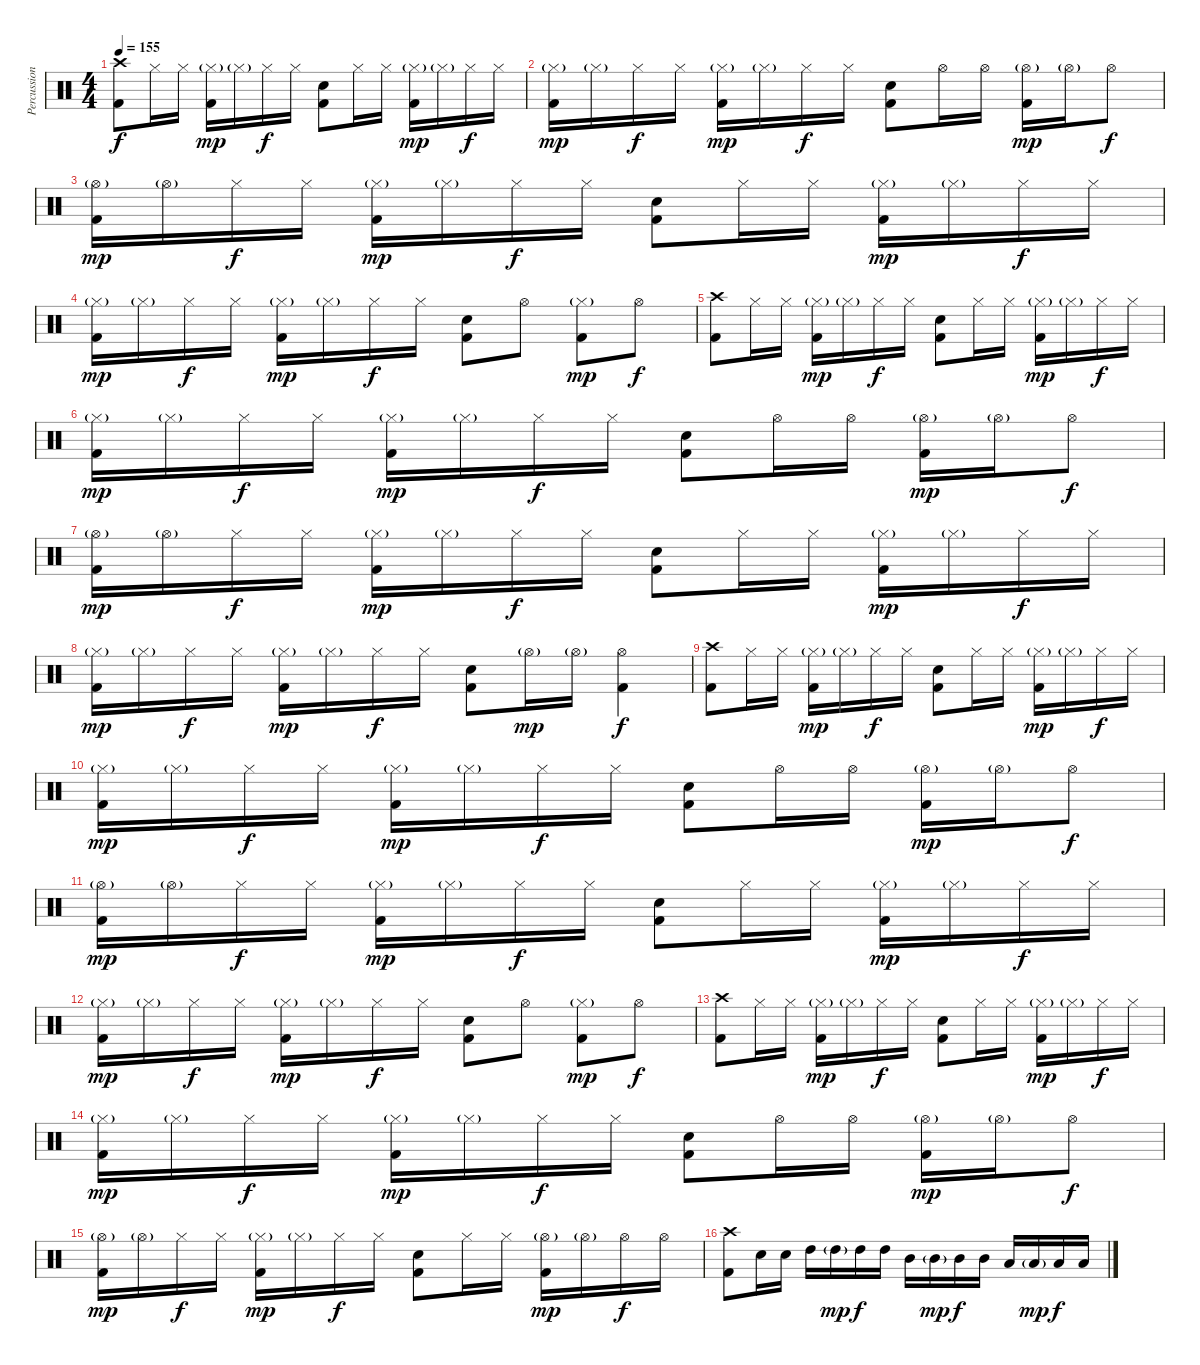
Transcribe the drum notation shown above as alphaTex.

\track ("Percussion" "Percussion") {instrument percussion}
\staff {score}
\articulation defaults
\ts (4 4)
\tempo 155
\clef neutral
\ks c
("Crash high (hit)" "Kick (hit) 2").8{dy f} "Hi-Hat (closed)".16 "Hi-Hat (closed)".16 ("Hi-Hat (closed)"{g} "Kick (hit) 2").16{dy mp} "Hi-Hat (closed)"{g}.16 "Hi-Hat (closed)".16{dy f} "Hi-Hat (closed)".16 ("Electric Snare (hit)" "Kick (hit) 2").8 "Hi-Hat (closed)".16 "Hi-Hat (closed)".16 ("Hi-Hat (closed)"{g} "Kick (hit) 2").16{dy mp} "Hi-Hat (closed)"{g}.16 "Hi-Hat (closed)".16{dy f} "Hi-Hat (closed)".16 |
("Hi-Hat (closed)"{g} "Kick (hit) 2").16{dy mp} "Hi-Hat (closed)"{g}.16 "Hi-Hat (closed)".16{dy f} "Hi-Hat (closed)".16 ("Hi-Hat (closed)"{g} "Kick (hit) 2").16{dy mp} "Hi-Hat (closed)"{g}.16 "Hi-Hat (closed)".16{dy f} "Hi-Hat (closed)".16 ("Electric Snare (hit)" "Kick (hit) 2").8 "Hi-Hat (open)".16 "Hi-Hat (open)".16 ("Hi-Hat (open)"{g} "Kick (hit) 2").16{dy mp} "Hi-Hat (open)"{g}.16 "Hi-Hat (open)".8{dy f} |
("Hi-Hat (open)"{g} "Kick (hit) 2").16{dy mp} "Hi-Hat (open)"{g}.16 "Hi-Hat (closed)".16{dy f} "Hi-Hat (closed)".16 ("Hi-Hat (closed)"{g} "Kick (hit) 2").16{dy mp} "Hi-Hat (closed)"{g}.16 "Hi-Hat (closed)".16{dy f} "Hi-Hat (closed)".16 ("Electric Snare (hit)" "Kick (hit) 2").8 "Hi-Hat (closed)".16 "Hi-Hat (closed)".16 ("Hi-Hat (closed)"{g} "Kick (hit) 2").16{dy mp} "Hi-Hat (closed)"{g}.16 "Hi-Hat (closed)".16{dy f} "Hi-Hat (closed)".16 |
("Hi-Hat (closed)"{g} "Kick (hit) 2").16{dy mp} "Hi-Hat (closed)"{g}.16 "Hi-Hat (closed)".16{dy f} "Hi-Hat (closed)".16 ("Hi-Hat (closed)"{g} "Kick (hit) 2").16{dy mp} "Hi-Hat (closed)"{g}.16 "Hi-Hat (closed)".16{dy f} "Hi-Hat (closed)".16 ("Electric Snare (hit)" "Kick (hit) 2").8 "Hi-Hat (open)".8 ("Hi-Hat (closed)"{g} "Kick (hit) 2").8{dy mp} "Hi-Hat (open)".8{dy f} |
("Crash high (hit)" "Kick (hit) 2").8 "Hi-Hat (closed)".16 "Hi-Hat (closed)".16 ("Hi-Hat (closed)"{g} "Kick (hit) 2").16{dy mp} "Hi-Hat (closed)"{g}.16 "Hi-Hat (closed)".16{dy f} "Hi-Hat (closed)".16 ("Electric Snare (hit)" "Kick (hit) 2").8 "Hi-Hat (closed)".16 "Hi-Hat (closed)".16 ("Hi-Hat (closed)"{g} "Kick (hit) 2").16{dy mp} "Hi-Hat (closed)"{g}.16 "Hi-Hat (closed)".16{dy f} "Hi-Hat (closed)".16 |
("Hi-Hat (closed)"{g} "Kick (hit) 2").16{dy mp} "Hi-Hat (closed)"{g}.16 "Hi-Hat (closed)".16{dy f} "Hi-Hat (closed)".16 ("Hi-Hat (closed)"{g} "Kick (hit) 2").16{dy mp} "Hi-Hat (closed)"{g}.16 "Hi-Hat (closed)".16{dy f} "Hi-Hat (closed)".16 ("Electric Snare (hit)" "Kick (hit) 2").8 "Hi-Hat (open)".16 "Hi-Hat (open)".16 ("Hi-Hat (open)"{g} "Kick (hit) 2").16{dy mp} "Hi-Hat (open)"{g}.16 "Hi-Hat (open)".8{dy f} |
("Hi-Hat (open)"{g} "Kick (hit) 2").16{dy mp} "Hi-Hat (open)"{g}.16 "Hi-Hat (closed)".16{dy f} "Hi-Hat (closed)".16 ("Hi-Hat (closed)"{g} "Kick (hit) 2").16{dy mp} "Hi-Hat (closed)"{g}.16 "Hi-Hat (closed)".16{dy f} "Hi-Hat (closed)".16 ("Electric Snare (hit)" "Kick (hit) 2").8 "Hi-Hat (closed)".16 "Hi-Hat (closed)".16 ("Hi-Hat (closed)"{g} "Kick (hit) 2").16{dy mp} "Hi-Hat (closed)"{g}.16 "Hi-Hat (closed)".16{dy f} "Hi-Hat (closed)".16 |
("Hi-Hat (closed)"{g} "Kick (hit) 2").16{dy mp} "Hi-Hat (closed)"{g}.16 "Hi-Hat (closed)".16{dy f} "Hi-Hat (closed)".16 ("Hi-Hat (closed)"{g} "Kick (hit) 2").16{dy mp} "Hi-Hat (closed)"{g}.16 "Hi-Hat (closed)".16{dy f} "Hi-Hat (closed)".16 ("Electric Snare (hit)" "Kick (hit) 2").8 "Hi-Hat (open)"{g}.16{dy mp} "Hi-Hat (open)"{g}.16 ("Hi-Hat (open)" "Kick (hit) 2").4{dy f} |
("Crash high (hit)" "Kick (hit) 2").8 "Hi-Hat (closed)".16 "Hi-Hat (closed)".16 ("Hi-Hat (closed)"{g} "Kick (hit) 2").16{dy mp} "Hi-Hat (closed)"{g}.16 "Hi-Hat (closed)".16{dy f} "Hi-Hat (closed)".16 ("Electric Snare (hit)" "Kick (hit) 2").8 "Hi-Hat (closed)".16 "Hi-Hat (closed)".16 ("Hi-Hat (closed)"{g} "Kick (hit) 2").16{dy mp} "Hi-Hat (closed)"{g}.16 "Hi-Hat (closed)".16{dy f} "Hi-Hat (closed)".16 |
("Hi-Hat (closed)"{g} "Kick (hit) 2").16{dy mp} "Hi-Hat (closed)"{g}.16 "Hi-Hat (closed)".16{dy f} "Hi-Hat (closed)".16 ("Hi-Hat (closed)"{g} "Kick (hit) 2").16{dy mp} "Hi-Hat (closed)"{g}.16 "Hi-Hat (closed)".16{dy f} "Hi-Hat (closed)".16 ("Electric Snare (hit)" "Kick (hit) 2").8 "Hi-Hat (open)".16 "Hi-Hat (open)".16 ("Hi-Hat (open)"{g} "Kick (hit) 2").16{dy mp} "Hi-Hat (open)"{g}.16 "Hi-Hat (open)".8{dy f} |
("Hi-Hat (open)"{g} "Kick (hit) 2").16{dy mp} "Hi-Hat (open)"{g}.16 "Hi-Hat (closed)".16{dy f} "Hi-Hat (closed)".16 ("Hi-Hat (closed)"{g} "Kick (hit) 2").16{dy mp} "Hi-Hat (closed)"{g}.16 "Hi-Hat (closed)".16{dy f} "Hi-Hat (closed)".16 ("Electric Snare (hit)" "Kick (hit) 2").8 "Hi-Hat (closed)".16 "Hi-Hat (closed)".16 ("Hi-Hat (closed)"{g} "Kick (hit) 2").16{dy mp} "Hi-Hat (closed)"{g}.16 "Hi-Hat (closed)".16{dy f} "Hi-Hat (closed)".16 |
("Hi-Hat (closed)"{g} "Kick (hit) 2").16{dy mp} "Hi-Hat (closed)"{g}.16 "Hi-Hat (closed)".16{dy f} "Hi-Hat (closed)".16 ("Hi-Hat (closed)"{g} "Kick (hit) 2").16{dy mp} "Hi-Hat (closed)"{g}.16 "Hi-Hat (closed)".16{dy f} "Hi-Hat (closed)".16 ("Electric Snare (hit)" "Kick (hit) 2").8 "Hi-Hat (open)".8 ("Hi-Hat (closed)"{g} "Kick (hit) 2").8{dy mp} "Hi-Hat (open)".8{dy f} |
("Crash high (hit)" "Kick (hit) 2").8 "Hi-Hat (closed)".16 "Hi-Hat (closed)".16 ("Hi-Hat (closed)"{g} "Kick (hit) 2").16{dy mp} "Hi-Hat (closed)"{g}.16 "Hi-Hat (closed)".16{dy f} "Hi-Hat (closed)".16 ("Electric Snare (hit)" "Kick (hit) 2").8 "Hi-Hat (closed)".16 "Hi-Hat (closed)".16 ("Hi-Hat (closed)"{g} "Kick (hit) 2").16{dy mp} "Hi-Hat (closed)"{g}.16 "Hi-Hat (closed)".16{dy f} "Hi-Hat (closed)".16 |
("Hi-Hat (closed)"{g} "Kick (hit) 2").16{dy mp} "Hi-Hat (closed)"{g}.16 "Hi-Hat (closed)".16{dy f} "Hi-Hat (closed)".16 ("Hi-Hat (closed)"{g} "Kick (hit) 2").16{dy mp} "Hi-Hat (closed)"{g}.16 "Hi-Hat (closed)".16{dy f} "Hi-Hat (closed)".16 ("Electric Snare (hit)" "Kick (hit) 2").8 "Hi-Hat (open)".16 "Hi-Hat (open)".16 ("Hi-Hat (open)"{g} "Kick (hit) 2").16{dy mp} "Hi-Hat (open)"{g}.16 "Hi-Hat (open)".8{dy f} |
("Hi-Hat (open)"{g} "Kick (hit) 2").16{dy mp} "Hi-Hat (open)"{g}.16 "Hi-Hat (closed)".16{dy f} "Hi-Hat (closed)".16 ("Hi-Hat (closed)"{g} "Kick (hit) 2").16{dy mp} "Hi-Hat (closed)"{g}.16 "Hi-Hat (closed)".16{dy f} "Hi-Hat (closed)".16 ("Electric Snare (hit)" "Kick (hit) 2").8 "Hi-Hat (closed)".16 "Hi-Hat (closed)".16 ("Hi-Hat (open)"{g} "Kick (hit) 2").16{dy mp} "Hi-Hat (open)"{g}.16 "Hi-Hat (open)".16{dy f} "Hi-Hat (open)".16 |
("Crash high (hit)" "Kick (hit) 2").8 "Electric Snare (hit)".16 "Electric Snare (hit)".16 "High Tom (hit)".16 "High Tom (hit)"{g}.16{dy mp} "High Tom (hit)".16{dy f} "High Tom (hit)".16 "Mid Tom (hit)".16 "Mid Tom (hit)"{g}.16{dy mp} "Mid Tom (hit)".16{dy f} "Mid Tom (hit)".16 "Low Tom (hit)".16 "Low Tom (hit)"{g}.16{dy mp} "Low Tom (hit)".16{dy f} "Low Tom (hit)".16
